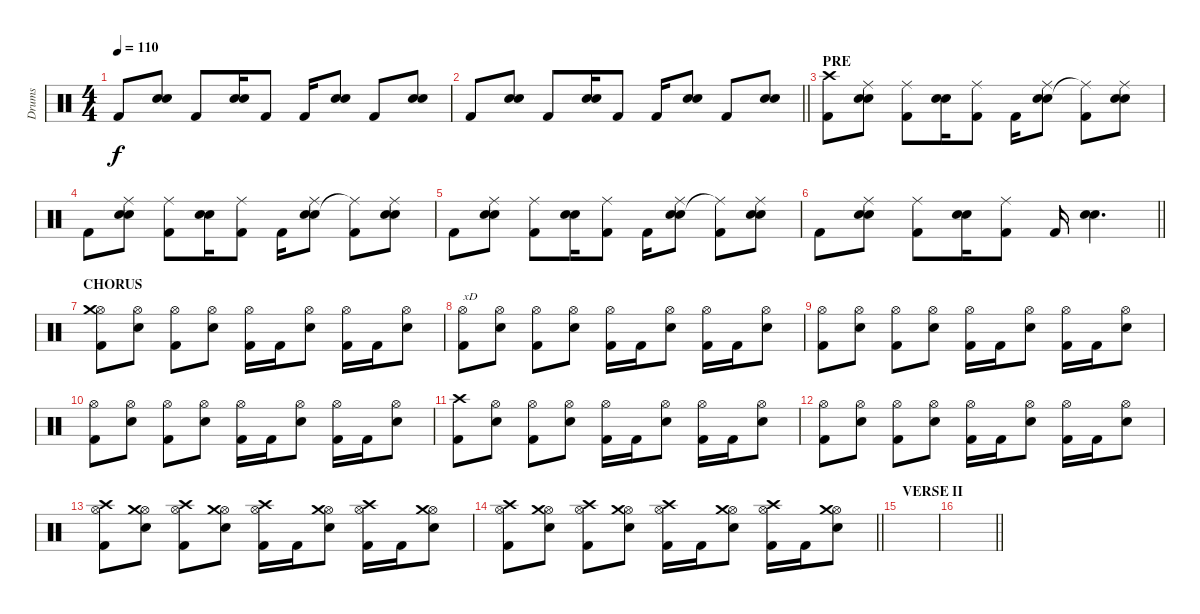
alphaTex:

\track ("Drums" "Drums") {instrument percussion}
\staff {score}
\articulation defaults
\ts (4 4)
\tempo 110
\clef neutral
\ks c "Kick (hit) 2".8{dy f}
("Snare (hit) 2" "Snare (hit) 2").8 "Kick (hit) 2".8 ("Snare (hit) 2" "Snare (hit) 2").16 "Kick (hit) 2".8 "Kick (hit) 2".16 ("Snare (hit) 2" "Snare (hit) 2").8 "Kick (hit) 2".8 ("Snare (hit) 2" "Snare (hit) 2").8 |
\barLineRight lightlight "Kick (hit) 2".8
("Snare (hit) 2" "Snare (hit) 2").8 "Kick (hit) 2".8 ("Snare (hit) 2" "Snare (hit) 2").16 "Kick (hit) 2".8 "Kick (hit) 2".16 ("Snare (hit) 2" "Snare (hit) 2").8 "Kick (hit) 2".8 ("Snare (hit) 2" "Snare (hit) 2").8 |
\section ("" "PRE")
("Kick (hit) 2" "Crash high (hit)").8{volume 15} ("Snare (hit) 2" "Snare (hit) 2" "Ride (middle)").8 ("Kick (hit) 2" "Ride (middle)").8 ("Snare (hit) 2" "Snare (hit) 2").16 ("Kick (hit) 2" "Ride (middle)").8 "Kick (hit) 2".16 ("Snare (hit) 2" "Snare (hit) 2" "Ride (middle)").8 ("Kick (hit) 2" "Ride (middle)"{t}).8 ("Snare (hit) 2" "Snare (hit) 2" "Ride (middle)").8 |
"Kick (hit) 2".8 ("Snare (hit) 2" "Snare (hit) 2" "Ride (middle)").8 ("Kick (hit) 2" "Ride (middle)").8 ("Snare (hit) 2" "Snare (hit) 2").16 ("Kick (hit) 2" "Ride (middle)").8 "Kick (hit) 2".16 ("Snare (hit) 2" "Snare (hit) 2" "Ride (middle)").8 ("Kick (hit) 2" "Ride (middle)"{t}).8 ("Snare (hit) 2" "Snare (hit) 2" "Ride (middle)").8 |
"Kick (hit) 2".8 ("Snare (hit) 2" "Snare (hit) 2" "Ride (middle)").8 ("Kick (hit) 2" "Ride (middle)").8 ("Snare (hit) 2" "Snare (hit) 2").16 ("Kick (hit) 2" "Ride (middle)").8 "Kick (hit) 2".16 ("Snare (hit) 2" "Snare (hit) 2" "Ride (middle)").8 ("Kick (hit) 2" "Ride (middle)"{t}).8 ("Snare (hit) 2" "Snare (hit) 2" "Ride (middle)").8 |
\barLineRight lightlight "Kick (hit) 2".8
("Snare (hit) 2" "Snare (hit) 2" "Ride (middle)").8 ("Kick (hit) 2" "Ride (middle)").8 ("Snare (hit) 2" "Snare (hit) 2").16 ("Kick (hit) 2" "Ride (middle)").8 "Kick (hit) 2".16 ("Snare (hit) 2" "Snare (hit) 2").4{d} |
\section ("" "CHORUS")
("Hi-Hat (open)" "Kick (hit) 2" "Crash medium (hit)").8{volume 16} ("Hi-Hat (open)" "Electric Snare (hit)").8 ("Hi-Hat (open)" "Kick (hit) 2").8 ("Hi-Hat (open)" "Electric Snare (hit)").8 ("Hi-Hat (open)" "Kick (hit) 2").16 "Kick (hit) 2".16 ("Hi-Hat (open)" "Electric Snare (hit)").8 ("Hi-Hat (open)" "Kick (hit) 2").16 "Kick (hit) 2".16 ("Hi-Hat (open)" "Electric Snare (hit)").8 |
("Hi-Hat (open)" "Kick (hit) 2").8{txt "xD"} ("Hi-Hat (open)" "Electric Snare (hit)").8 ("Hi-Hat (open)" "Kick (hit) 2").8 ("Hi-Hat (open)" "Electric Snare (hit)").8 ("Hi-Hat (open)" "Kick (hit) 2").16 "Kick (hit) 2".16 ("Hi-Hat (open)" "Electric Snare (hit)").8 ("Hi-Hat (open)" "Kick (hit) 2").16 "Kick (hit) 2".16 ("Hi-Hat (open)" "Electric Snare (hit)").8 |
("Hi-Hat (open)" "Kick (hit) 2").8 ("Hi-Hat (open)" "Electric Snare (hit)").8 ("Hi-Hat (open)" "Kick (hit) 2").8 ("Hi-Hat (open)" "Electric Snare (hit)").8 ("Hi-Hat (open)" "Kick (hit) 2").16 "Kick (hit) 2".16 ("Hi-Hat (open)" "Electric Snare (hit)").8 ("Hi-Hat (open)" "Kick (hit) 2").16 "Kick (hit) 2".16 ("Hi-Hat (open)" "Electric Snare (hit)").8 |
("Hi-Hat (open)" "Kick (hit) 2").8 ("Hi-Hat (open)" "Electric Snare (hit)").8 ("Hi-Hat (open)" "Kick (hit) 2").8 ("Hi-Hat (open)" "Electric Snare (hit)").8 ("Hi-Hat (open)" "Kick (hit) 2").16 "Kick (hit) 2".16 ("Hi-Hat (open)" "Electric Snare (hit)").8 ("Hi-Hat (open)" "Kick (hit) 2").16 "Kick (hit) 2".16 ("Hi-Hat (open)" "Electric Snare (hit)").8 |
("Crash high (hit)" "Kick (hit) 2").8 ("Hi-Hat (open)" "Electric Snare (hit)").8 ("Hi-Hat (open)" "Kick (hit) 2").8 ("Hi-Hat (open)" "Electric Snare (hit)").8 ("Hi-Hat (open)" "Kick (hit) 2").16 "Kick (hit) 2".16 ("Hi-Hat (open)" "Electric Snare (hit)").8 ("Hi-Hat (open)" "Kick (hit) 2").16 "Kick (hit) 2".16 ("Hi-Hat (open)" "Electric Snare (hit)").8 |
("Hi-Hat (open)" "Kick (hit) 2").8 ("Hi-Hat (open)" "Electric Snare (hit)").8 ("Hi-Hat (open)" "Kick (hit) 2").8 ("Hi-Hat (open)" "Electric Snare (hit)").8 ("Hi-Hat (open)" "Kick (hit) 2").16 "Kick (hit) 2".16 ("Hi-Hat (open)" "Electric Snare (hit)").8 ("Hi-Hat (open)" "Kick (hit) 2").16 "Kick (hit) 2".16 ("Hi-Hat (open)" "Electric Snare (hit)").8 |
("Hi-Hat (open)" "Kick (hit) 2" "Crash high (hit)").8 ("Hi-Hat (open)" "Electric Snare (hit)" "Crash medium (hit)").8 ("Hi-Hat (open)" "Kick (hit) 2" "Crash high (hit)").8 ("Hi-Hat (open)" "Electric Snare (hit)" "Crash medium (hit)").8 ("Hi-Hat (open)" "Kick (hit) 2" "Crash high (hit)").16 "Kick (hit) 2".16 ("Hi-Hat (open)" "Electric Snare (hit)" "Crash medium (hit)").8 ("Hi-Hat (open)" "Kick (hit) 2" "Crash high (hit)").16 "Kick (hit) 2".16 ("Hi-Hat (open)" "Electric Snare (hit)" "Crash medium (hit)").8 |
\barLineRight lightlight
("Hi-Hat (open)" "Kick (hit) 2" "Crash high (hit)").8 ("Hi-Hat (open)" "Electric Snare (hit)" "Crash medium (hit)").8 ("Hi-Hat (open)" "Kick (hit) 2" "Crash high (hit)").8 ("Hi-Hat (open)" "Electric Snare (hit)" "Crash medium (hit)").8 ("Hi-Hat (open)" "Kick (hit) 2" "Crash high (hit)").16 "Kick (hit) 2".16 ("Hi-Hat (open)" "Electric Snare (hit)" "Crash medium (hit)").8 ("Hi-Hat (open)" "Kick (hit) 2" "Crash high (hit)").16 "Kick (hit) 2".16 ("Hi-Hat (open)" "Electric Snare (hit)" "Crash medium (hit)").8 |
\section ("" "VERSE II")
|
\barLineRight lightlight
